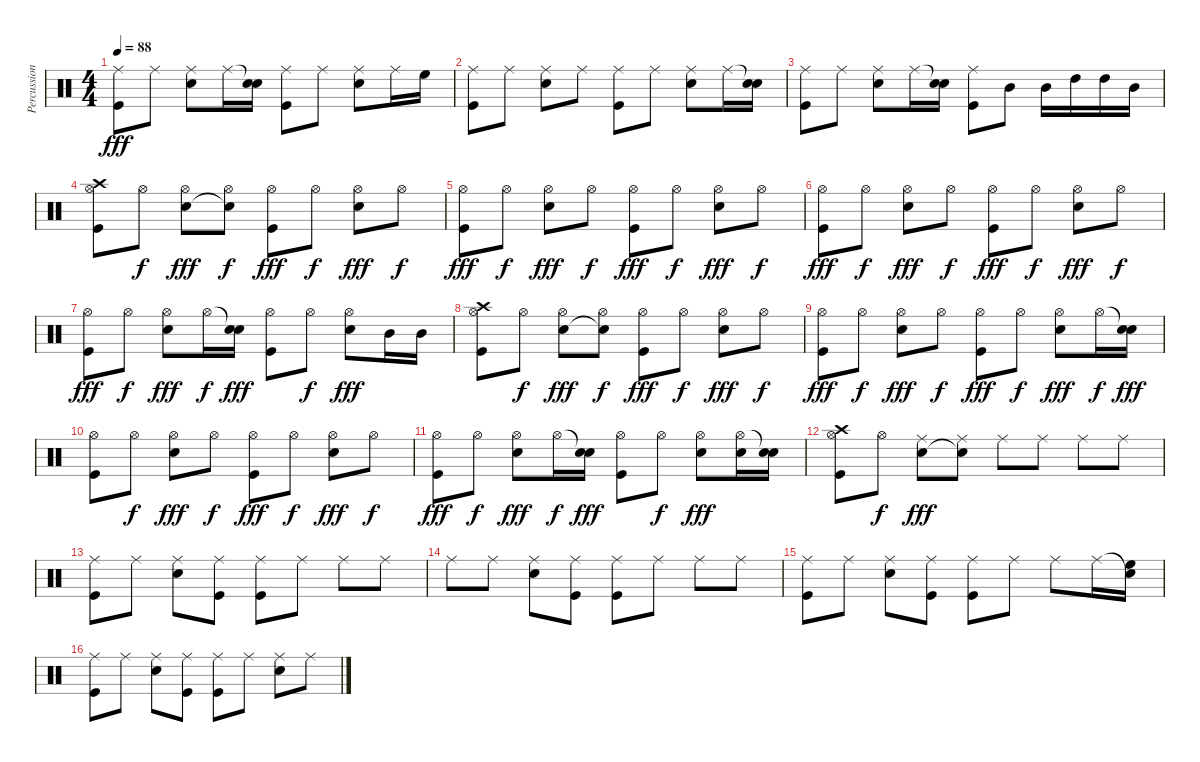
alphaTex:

\track ("Percussions" "Percussion") {instrument percussion}
\staff {score}
\articulation defaults
\ts (4 4)
\tempo 88
\clef neutral
\ks c
("Ride (middle)" "Kick (hit)").8{dy fff} "Ride (middle)".8 ("Ride (middle)" "Snare (hit) 2").8 "Ride (middle)".16 ("Snare (hit)"{t} "Snare (hit) 2").16 ("Ride (middle)" "Kick (hit)").8 "Ride (middle)".8 ("Ride (middle)" "Snare (hit) 2").8 "Ride (middle)".16 "High Floor Tom (hit)".16 |
("Ride (middle)" "Kick (hit)").8 "Ride (middle)".8 ("Ride (middle)" "Snare (hit) 2").8 "Ride (middle)".8 ("Ride (middle)" "Kick (hit)").8 "Ride (middle)".8 ("Ride (middle)" "Snare (hit) 2").8 "Ride (middle)".16 ("Snare (hit)"{t} "Snare (hit) 2").16 |
("Ride (middle)" "Kick (hit)").8 "Ride (middle)".8 ("Ride (middle)" "Snare (hit) 2").8 "Ride (middle)".16 ("Snare (hit)"{t} "Snare (hit) 2").16 ("Ride (middle)" "Kick (hit)").8 "Mid Tom (hit)".8 "Mid Tom (hit)".16 "High Tom (hit)".16 "High Tom (hit)".16 "Mid Tom (hit)".16 |
("Hi-Hat (open)" "Kick (hit)" "Crash high (hit)").8 "Hi-Hat (open)".8{dy f} ("Hi-Hat (open)" "Snare (hit) 2").8{dy fff} ("Hi-Hat (open)" "Snare (hit)"{t}).8{dy f} ("Hi-Hat (open)" "Kick (hit)").8{dy fff} "Hi-Hat (open)".8{dy f} ("Hi-Hat (open)" "Snare (hit) 2").8{dy fff} "Hi-Hat (open)".8{dy f} |
("Hi-Hat (open)" "Kick (hit)").8{dy fff} "Hi-Hat (open)".8{dy f} ("Hi-Hat (open)" "Snare (hit) 2").8{dy fff} "Hi-Hat (open)".8{dy f} ("Hi-Hat (open)" "Kick (hit)").8{dy fff} "Hi-Hat (open)".8{dy f} ("Hi-Hat (open)" "Snare (hit) 2").8{dy fff} "Hi-Hat (open)".8{dy f} |
("Hi-Hat (open)" "Kick (hit)").8{dy fff} "Hi-Hat (open)".8{dy f} ("Hi-Hat (open)" "Snare (hit) 2").8{dy fff} "Hi-Hat (open)".8{dy f} ("Hi-Hat (open)" "Kick (hit)").8{dy fff} "Hi-Hat (open)".8{dy f} ("Hi-Hat (open)" "Snare (hit) 2").8{dy fff} "Hi-Hat (open)".8{dy f} |
("Hi-Hat (open)" "Kick (hit)").8{dy fff} "Hi-Hat (open)".8{dy f} ("Hi-Hat (open)" "Snare (hit) 2").8{dy fff} "Hi-Hat (open)".16{dy f} ("Snare (hit)"{t} "Snare (hit) 2").16{dy fff} ("Hi-Hat (open)" "Kick (hit)").8 "Hi-Hat (open)".8{dy f} ("Hi-Hat (open)" "Snare (hit) 2").8{dy fff} "Mid Tom (hit)".16 "Mid Tom (hit)".16 |
("Hi-Hat (open)" "Kick (hit)" "Crash high (hit)").8 "Hi-Hat (open)".8{dy f} ("Hi-Hat (open)" "Snare (hit) 2").8{dy fff} ("Hi-Hat (open)" "Snare (hit)"{t}).8{dy f} ("Hi-Hat (open)" "Kick (hit)").8{dy fff} "Hi-Hat (open)".8{dy f} ("Hi-Hat (open)" "Snare (hit) 2").8{dy fff} "Hi-Hat (open)".8{dy f} |
("Hi-Hat (open)" "Kick (hit)").8{dy fff} "Hi-Hat (open)".8{dy f} ("Hi-Hat (open)" "Snare (hit) 2").8{dy fff} "Hi-Hat (open)".8{dy f} ("Hi-Hat (open)" "Kick (hit)").8{dy fff} "Hi-Hat (open)".8{dy f} ("Hi-Hat (open)" "Snare (hit) 2").8{dy fff} "Hi-Hat (open)".16{dy f} ("Snare (hit)"{t} "Snare (hit) 2").16{dy fff} |
("Hi-Hat (open)" "Kick (hit)").8 "Hi-Hat (open)".8{dy f} ("Hi-Hat (open)" "Snare (hit) 2").8{dy fff} "Hi-Hat (open)".8{dy f} ("Hi-Hat (open)" "Kick (hit)").8{dy fff} "Hi-Hat (open)".8{dy f} ("Hi-Hat (open)" "Snare (hit) 2").8{dy fff} "Hi-Hat (open)".8{dy f} |
("Hi-Hat (open)" "Kick (hit)").8{dy fff} "Hi-Hat (open)".8{dy f} ("Hi-Hat (open)" "Snare (hit) 2").8{dy fff} "Hi-Hat (open)".16{dy f} ("Snare (hit)"{t} "Snare (hit) 2").16{dy fff} ("Hi-Hat (open)" "Kick (hit)").8 "Hi-Hat (open)".8{dy f} ("Hi-Hat (open)" "Snare (hit) 2").8{dy fff} ("Hi-Hat (open)" "Snare (hit) 2").16 ("Snare (hit)"{t} "Snare (hit) 2").16 |
("Hi-Hat (open)" "Kick (hit)" "Crash high (hit)").8 "Hi-Hat (open)".8{dy f} ("Ride (middle)" "Snare (hit) 2").8{dy fff} ("Ride (middle)" "Snare (hit)"{t}).8 "Ride (middle)".8 "Ride (middle)".8 "Ride (middle)".8 "Ride (middle)".8 |
("Ride (middle)" "Kick (hit)").8 "Ride (middle)".8 ("Ride (middle)" "Snare (hit) 2").8 ("Ride (middle)" "Kick (hit)").8 ("Ride (middle)" "Kick (hit)").8 "Ride (middle)".8 "Ride (middle)".8 "Ride (middle)".8 |
"Ride (middle)".8 "Ride (middle)".8 ("Ride (middle)" "Snare (hit) 2").8 ("Ride (middle)" "Kick (hit)").8 ("Ride (middle)" "Kick (hit)").8 "Ride (middle)".8 "Ride (middle)".8 "Ride (middle)".8 |
("Ride (middle)" "Kick (hit)").8 "Ride (middle)".8 ("Ride (middle)" "Snare (hit) 2").8 ("Ride (middle)" "Kick (hit)").8 ("Ride (middle)" "Kick (hit)").8 "Ride (middle)".8 "Ride (middle)".8 "Ride (middle)".16 ("Snare (hit)"{t} "High Floor Tom (hit)").16 |
("Ride (middle)" "Kick (hit)").8 "Ride (middle)".8 ("Ride (middle)" "Snare (hit) 2").8 ("Ride (middle)" "Kick (hit)").8 ("Ride (middle)" "Kick (hit)").8 "Ride (middle)".8 ("Ride (middle)" "Snare (hit) 2").8 "Ride (middle)".8
